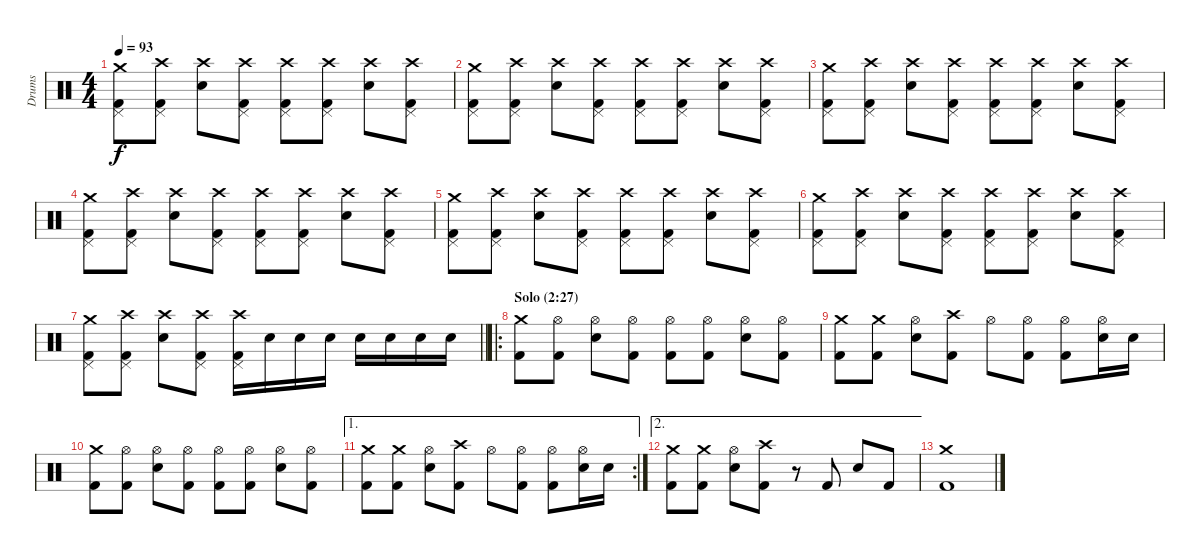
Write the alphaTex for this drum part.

\track ("Drums" "Drums") {instrument percussion}
\staff {score}
\articulation defaults
\ts (4 4)
\tempo 93
\clef neutral
\ks c
("Crash medium (hit)" "Pedal Hi-Hat (hit)" "Kick (hit) 2").8{dy f} ("Crash high (hit)" "Pedal Hi-Hat (hit)" "Kick (hit) 2").8 ("Crash high (hit)" "Electric Snare (hit)").8 ("Crash high (hit)" "Pedal Hi-Hat (hit)" "Kick (hit) 2").8 ("Crash high (hit)" "Pedal Hi-Hat (hit)" "Kick (hit) 2").8 ("Crash high (hit)" "Pedal Hi-Hat (hit)" "Kick (hit) 2").8 ("Crash high (hit)" "Electric Snare (hit)").8 ("Crash high (hit)" "Pedal Hi-Hat (hit)" "Kick (hit) 2").8 |
("Crash medium (hit)" "Pedal Hi-Hat (hit)" "Kick (hit) 2").8 ("Crash high (hit)" "Pedal Hi-Hat (hit)" "Kick (hit) 2").8 ("Crash high (hit)" "Electric Snare (hit)").8 ("Crash high (hit)" "Pedal Hi-Hat (hit)" "Kick (hit) 2").8 ("Crash high (hit)" "Pedal Hi-Hat (hit)" "Kick (hit) 2").8 ("Crash high (hit)" "Pedal Hi-Hat (hit)" "Kick (hit) 2").8 ("Crash high (hit)" "Electric Snare (hit)").8 ("Crash high (hit)" "Pedal Hi-Hat (hit)" "Kick (hit) 2").8 |
("Crash medium (hit)" "Pedal Hi-Hat (hit)" "Kick (hit) 2").8 ("Crash high (hit)" "Pedal Hi-Hat (hit)" "Kick (hit) 2").8 ("Crash high (hit)" "Electric Snare (hit)").8 ("Crash high (hit)" "Pedal Hi-Hat (hit)" "Kick (hit) 2").8 ("Crash high (hit)" "Pedal Hi-Hat (hit)" "Kick (hit) 2").8 ("Crash high (hit)" "Pedal Hi-Hat (hit)" "Kick (hit) 2").8 ("Crash high (hit)" "Electric Snare (hit)").8 ("Crash high (hit)" "Pedal Hi-Hat (hit)" "Kick (hit) 2").8 |
("Crash medium (hit)" "Pedal Hi-Hat (hit)" "Kick (hit) 2").8 ("Crash high (hit)" "Pedal Hi-Hat (hit)" "Kick (hit) 2").8 ("Crash high (hit)" "Electric Snare (hit)").8 ("Crash high (hit)" "Pedal Hi-Hat (hit)" "Kick (hit) 2").8 ("Crash high (hit)" "Pedal Hi-Hat (hit)" "Kick (hit) 2").8 ("Crash high (hit)" "Pedal Hi-Hat (hit)" "Kick (hit) 2").8 ("Crash high (hit)" "Electric Snare (hit)").8 ("Crash high (hit)" "Pedal Hi-Hat (hit)" "Kick (hit) 2").8 |
("Crash medium (hit)" "Pedal Hi-Hat (hit)" "Kick (hit) 2").8 ("Crash high (hit)" "Pedal Hi-Hat (hit)" "Kick (hit) 2").8 ("Crash high (hit)" "Electric Snare (hit)").8 ("Crash high (hit)" "Pedal Hi-Hat (hit)" "Kick (hit) 2").8 ("Crash high (hit)" "Pedal Hi-Hat (hit)" "Kick (hit) 2").8 ("Crash high (hit)" "Pedal Hi-Hat (hit)" "Kick (hit) 2").8 ("Crash high (hit)" "Electric Snare (hit)").8 ("Crash high (hit)" "Pedal Hi-Hat (hit)" "Kick (hit) 2").8 |
("Crash medium (hit)" "Pedal Hi-Hat (hit)" "Kick (hit) 2").8 ("Crash high (hit)" "Pedal Hi-Hat (hit)" "Kick (hit) 2").8 ("Crash high (hit)" "Electric Snare (hit)").8 ("Crash high (hit)" "Pedal Hi-Hat (hit)" "Kick (hit) 2").8 ("Crash high (hit)" "Pedal Hi-Hat (hit)" "Kick (hit) 2").8 ("Crash high (hit)" "Pedal Hi-Hat (hit)" "Kick (hit) 2").8 ("Crash high (hit)" "Electric Snare (hit)").8 ("Crash high (hit)" "Pedal Hi-Hat (hit)" "Kick (hit) 2").8 |
\barLineRight lightlight
("Crash medium (hit)" "Pedal Hi-Hat (hit)" "Kick (hit) 2").8 ("Crash high (hit)" "Pedal Hi-Hat (hit)" "Kick (hit) 2").8 ("Crash high (hit)" "Electric Snare (hit)").8 ("Crash high (hit)" "Pedal Hi-Hat (hit)" "Kick (hit) 2").8 ("Crash high (hit)" "Pedal Hi-Hat (hit)" "Kick (hit) 2").16 "Electric Snare (hit)".16 "Electric Snare (hit)".16 "Electric Snare (hit)".16 "Electric Snare (hit)".16 "Electric Snare (hit)".16 "Electric Snare (hit)".16 "Electric Snare (hit)".16 |
\ro
\section ("" "Solo (2:27)")
("Crash medium (hit)" "Kick (hit) 2").8 ("Hi-Hat (open)" "Kick (hit) 2").8 ("Hi-Hat (open)" "Electric Snare (hit)").8 ("Hi-Hat (open)" "Kick (hit) 2").8 ("Hi-Hat (open)" "Kick (hit) 2").8 ("Hi-Hat (open)" "Kick (hit) 2").8 ("Hi-Hat (open)" "Electric Snare (hit)").8 ("Hi-Hat (open)" "Kick (hit) 2").8 |
("Crash medium (hit)" "Kick (hit) 2").8 ("Crash medium (hit)" "Kick (hit) 2").8 ("Hi-Hat (open)" "Electric Snare (hit)").8 ("Crash high (hit)" "Kick (hit) 2").8 "Hi-Hat (open)".8 ("Hi-Hat (open)" "Kick (hit) 2").8 ("Hi-Hat (open)" "Kick (hit) 2").8 ("Hi-Hat (open)" "Electric Snare (hit)").16 "Electric Snare (hit)".16 |
("Crash medium (hit)" "Kick (hit) 2").8 ("Hi-Hat (open)" "Kick (hit) 2").8 ("Hi-Hat (open)" "Electric Snare (hit)").8 ("Hi-Hat (open)" "Kick (hit) 2").8 ("Hi-Hat (open)" "Kick (hit) 2").8 ("Hi-Hat (open)" "Kick (hit) 2").8 ("Hi-Hat (open)" "Electric Snare (hit)").8 ("Hi-Hat (open)" "Kick (hit) 2").8 |
\ae 1
\rc 2
("Crash medium (hit)" "Kick (hit) 2").8 ("Crash medium (hit)" "Kick (hit) 2").8 ("Hi-Hat (open)" "Electric Snare (hit)").8 ("Crash high (hit)" "Kick (hit) 2").8 "Hi-Hat (open)".8 ("Hi-Hat (open)" "Kick (hit) 2").8 ("Hi-Hat (open)" "Kick (hit) 2").8 ("Hi-Hat (open)" "Electric Snare (hit)").16 "Electric Snare (hit)".16 |
\ae 2
("Crash medium (hit)" "Kick (hit) 2").8 ("Crash medium (hit)" "Kick (hit) 2").8 ("Hi-Hat (open)" "Electric Snare (hit)").8 ("Crash high (hit)" "Kick (hit) 2").8 r.8 "Kick (hit) 2".8 "Electric Snare (hit)".8 "Kick (hit) 2".8 |
("Crash medium (hit)" "Kick (hit) 2").1
